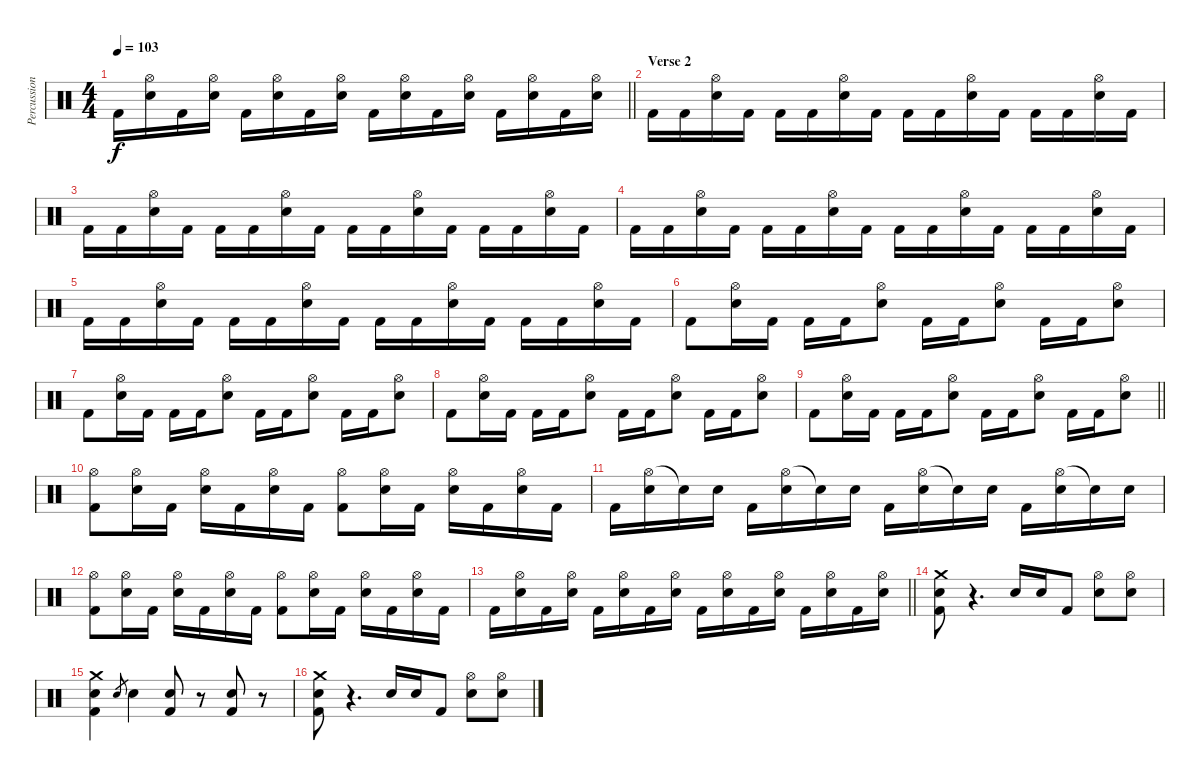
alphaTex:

\track ("Percussion" "Percussion") {instrument percussion}
\staff {score}
\articulation defaults
\ts (4 4)
\tempo 103
\clef neutral
\barLineRight lightlight
\ks aminor "Kick (hit) 2".16{dy f}
("Hi-Hat (open)" "Electric Snare (hit)").16 "Kick (hit) 2".16 ("Hi-Hat (open)" "Electric Snare (hit)").16 "Kick (hit) 2".16 ("Hi-Hat (open)" "Electric Snare (hit)").16 "Kick (hit) 2".16 ("Hi-Hat (open)" "Electric Snare (hit)").16 "Kick (hit) 2".16 ("Hi-Hat (open)" "Electric Snare (hit)").16 "Kick (hit) 2".16 ("Hi-Hat (open)" "Electric Snare (hit)").16 "Kick (hit) 2".16 ("Hi-Hat (open)" "Electric Snare (hit)").16 "Kick (hit) 2".16 ("Hi-Hat (open)" "Electric Snare (hit)").16 |
\section ("" "Verse 2")
"Kick (hit) 2".16 "Kick (hit) 2".16 ("Hi-Hat (open)" "Electric Snare (hit)").16 "Kick (hit) 2".16 "Kick (hit) 2".16 "Kick (hit) 2".16 ("Hi-Hat (open)" "Electric Snare (hit)").16 "Kick (hit) 2".16 "Kick (hit) 2".16 "Kick (hit) 2".16 ("Hi-Hat (open)" "Electric Snare (hit)").16 "Kick (hit) 2".16 "Kick (hit) 2".16 "Kick (hit) 2".16 ("Hi-Hat (open)" "Electric Snare (hit)").16 "Kick (hit) 2".16 |
"Kick (hit) 2".16 "Kick (hit) 2".16 ("Hi-Hat (open)" "Electric Snare (hit)").16 "Kick (hit) 2".16 "Kick (hit) 2".16 "Kick (hit) 2".16 ("Hi-Hat (open)" "Electric Snare (hit)").16 "Kick (hit) 2".16 "Kick (hit) 2".16 "Kick (hit) 2".16 ("Hi-Hat (open)" "Electric Snare (hit)").16 "Kick (hit) 2".16 "Kick (hit) 2".16 "Kick (hit) 2".16 ("Hi-Hat (open)" "Electric Snare (hit)").16 "Kick (hit) 2".16 |
"Kick (hit) 2".16 "Kick (hit) 2".16 ("Hi-Hat (open)" "Electric Snare (hit)").16 "Kick (hit) 2".16 "Kick (hit) 2".16 "Kick (hit) 2".16 ("Hi-Hat (open)" "Electric Snare (hit)").16 "Kick (hit) 2".16 "Kick (hit) 2".16 "Kick (hit) 2".16 ("Hi-Hat (open)" "Electric Snare (hit)").16 "Kick (hit) 2".16 "Kick (hit) 2".16 "Kick (hit) 2".16 ("Hi-Hat (open)" "Electric Snare (hit)").16 "Kick (hit) 2".16 |
"Kick (hit) 2".16 "Kick (hit) 2".16 ("Hi-Hat (open)" "Electric Snare (hit)").16 "Kick (hit) 2".16 "Kick (hit) 2".16 "Kick (hit) 2".16 ("Hi-Hat (open)" "Electric Snare (hit)").16 "Kick (hit) 2".16 "Kick (hit) 2".16 "Kick (hit) 2".16 ("Hi-Hat (open)" "Electric Snare (hit)").16 "Kick (hit) 2".16 "Kick (hit) 2".16 "Kick (hit) 2".16 ("Hi-Hat (open)" "Electric Snare (hit)").16 "Kick (hit) 2".16 |
"Kick (hit) 2".8 ("Hi-Hat (open)" "Electric Snare (hit)").16 "Kick (hit) 2".16 "Kick (hit) 2".16 "Kick (hit) 2".16 ("Hi-Hat (open)" "Electric Snare (hit)").8 "Kick (hit) 2".16 "Kick (hit) 2".16 ("Hi-Hat (open)" "Electric Snare (hit)").8 "Kick (hit) 2".16 "Kick (hit) 2".16 ("Hi-Hat (open)" "Electric Snare (hit)").8 |
"Kick (hit) 2".8 ("Hi-Hat (open)" "Electric Snare (hit)").16 "Kick (hit) 2".16 "Kick (hit) 2".16 "Kick (hit) 2".16 ("Hi-Hat (open)" "Electric Snare (hit)").8 "Kick (hit) 2".16 "Kick (hit) 2".16 ("Hi-Hat (open)" "Electric Snare (hit)").8 "Kick (hit) 2".16 "Kick (hit) 2".16 ("Hi-Hat (open)" "Electric Snare (hit)").8 |
"Kick (hit) 2".8 ("Hi-Hat (open)" "Electric Snare (hit)").16 "Kick (hit) 2".16 "Kick (hit) 2".16 "Kick (hit) 2".16 ("Hi-Hat (open)" "Electric Snare (hit)").8 "Kick (hit) 2".16 "Kick (hit) 2".16 ("Hi-Hat (open)" "Electric Snare (hit)").8 "Kick (hit) 2".16 "Kick (hit) 2".16 ("Hi-Hat (open)" "Electric Snare (hit)").8 |
\barLineRight lightlight "Kick (hit) 2".8
("Hi-Hat (open)" "Electric Snare (hit)").16 "Kick (hit) 2".16 "Kick (hit) 2".16 "Kick (hit) 2".16 ("Hi-Hat (open)" "Electric Snare (hit)").8 "Kick (hit) 2".16 "Kick (hit) 2".16 ("Hi-Hat (open)" "Electric Snare (hit)").8 "Kick (hit) 2".16 "Kick (hit) 2".16 ("Hi-Hat (open)" "Electric Snare (hit)").8 |
\section ("" "")
("Hi-Hat (open)" "Kick (hit) 2").8 ("Hi-Hat (open)" "Electric Snare (hit)").16 "Kick (hit) 2".16 ("Hi-Hat (open)" "Electric Snare (hit)").16 "Kick (hit) 2".16 ("Hi-Hat (open)" "Electric Snare (hit)").16 "Kick (hit) 2".16 ("Hi-Hat (open)" "Kick (hit) 2").8 ("Hi-Hat (open)" "Electric Snare (hit)").16 "Kick (hit) 2".16 ("Hi-Hat (open)" "Electric Snare (hit)").16 "Kick (hit) 2".16 ("Hi-Hat (open)" "Electric Snare (hit)").16 "Kick (hit) 2".16 |
"Kick (hit) 2".16 ("Hi-Hat (open)" "Electric Snare (hit)").16 "Snare (hit)"{t}.16 "Electric Snare (hit)".16 "Kick (hit) 2".16 ("Hi-Hat (open)" "Electric Snare (hit)").16 "Snare (hit)"{t}.16 "Electric Snare (hit)".16 "Kick (hit) 2".16 ("Hi-Hat (open)" "Electric Snare (hit)").16 "Snare (hit)"{t}.16 "Electric Snare (hit)".16 "Kick (hit) 2".16 ("Hi-Hat (open)" "Electric Snare (hit)").16 "Snare (hit)"{t}.16 "Electric Snare (hit)".16 |
("Hi-Hat (open)" "Kick (hit) 2").8 ("Hi-Hat (open)" "Electric Snare (hit)").16 "Kick (hit) 2".16 ("Hi-Hat (open)" "Electric Snare (hit)").16 "Kick (hit) 2".16 ("Hi-Hat (open)" "Electric Snare (hit)").16 "Kick (hit) 2".16 ("Hi-Hat (open)" "Kick (hit) 2").8 ("Hi-Hat (open)" "Electric Snare (hit)").16 "Kick (hit) 2".16 ("Hi-Hat (open)" "Electric Snare (hit)").16 "Kick (hit) 2".16 ("Hi-Hat (open)" "Electric Snare (hit)").16 "Kick (hit) 2".16 |
\barLineRight lightlight "Kick (hit) 2".16
("Hi-Hat (open)" "Electric Snare (hit)").16 "Kick (hit) 2".16 ("Hi-Hat (open)" "Electric Snare (hit)").16 "Kick (hit) 2".16 ("Hi-Hat (open)" "Electric Snare (hit)").16 "Kick (hit) 2".16 ("Hi-Hat (open)" "Electric Snare (hit)").16 "Kick (hit) 2".16 ("Hi-Hat (open)" "Electric Snare (hit)").16 "Kick (hit) 2".16 ("Hi-Hat (open)" "Electric Snare (hit)").16 "Kick (hit) 2".16 ("Hi-Hat (open)" "Electric Snare (hit)").16 "Kick (hit) 2".16 ("Hi-Hat (open)" "Electric Snare (hit)").16 |
\section ("" "")
("Crash medium (hit)" "Electric Snare (hit)" "Kick (hit) 2").8 r.4{d} "Electric Snare (hit)".16 "Electric Snare (hit)".16 "Kick (hit) 2".8 ("Hi-Hat (open)" "Electric Snare (hit)").8 ("Hi-Hat (open)" "Electric Snare (hit)").8 |
("Crash medium (hit)" "Electric Snare (hit)" "Kick (hit) 2").4 "Electric Snare (hit)".8{gr} "Electric Snare (hit)".4 ("Electric Snare (hit)" "Kick (hit) 2").8 r.8 ("Electric Snare (hit)" "Kick (hit) 2").8 r.8 |
("Crash medium (hit)" "Electric Snare (hit)" "Kick (hit) 2").8 r.4{d} "Electric Snare (hit)".16 "Electric Snare (hit)".16 "Kick (hit) 2".8 ("Hi-Hat (open)" "Electric Snare (hit)").8 ("Hi-Hat (open)" "Electric Snare (hit)").8
